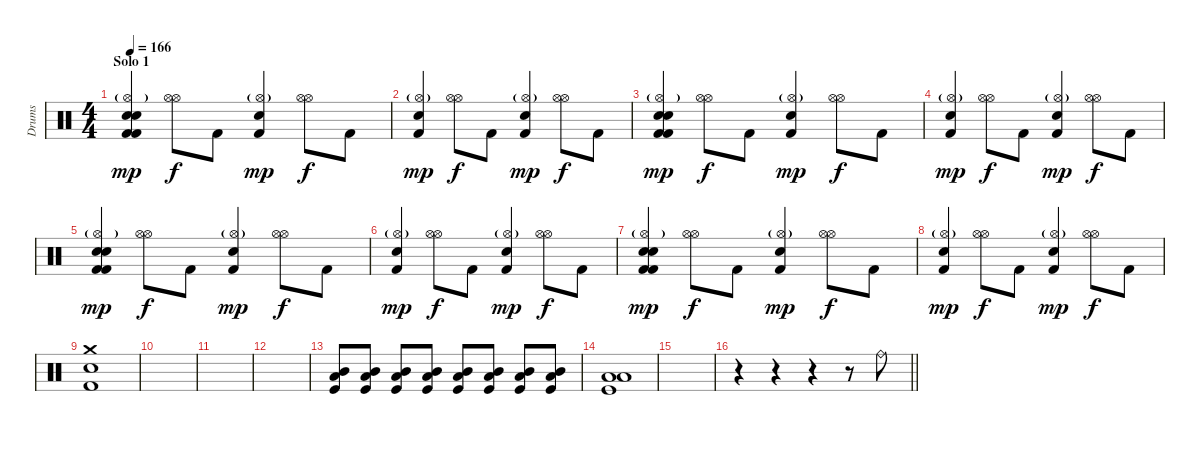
\track ("Drums" "Drums") {instrument percussion}
\staff {score}
\articulation defaults
\ts (4 4)
\section ("" "Solo 1")
\tempo 166
\clef neutral
\ks c
("Kick (hit) 2" "Electric Snare (hit)" "Hi-Hat (open)"{g} "Kick (hit) 2" "Snare (hit) 2").4{dy mp} ("Hi-Hat (open)" "Hi-Hat (open)").8{dy f} "Kick (hit) 2".8 ("Hi-Hat (open)"{g} "Kick (hit) 2" "Snare (hit) 2").4{dy mp} ("Hi-Hat (open)" "Hi-Hat (open)").8{dy f} "Kick (hit) 2".8 |
("Hi-Hat (open)"{g} "Kick (hit) 2" "Snare (hit) 2").4{dy mp} ("Hi-Hat (open)" "Hi-Hat (open)").8{dy f} "Kick (hit) 2".8 ("Hi-Hat (open)"{g} "Kick (hit) 2" "Snare (hit) 2").4{dy mp} ("Hi-Hat (open)" "Hi-Hat (open)").8{dy f} "Kick (hit) 2".8 |
("Kick (hit) 2" "Electric Snare (hit)" "Hi-Hat (open)"{g} "Kick (hit) 2" "Snare (hit) 2").4{dy mp} ("Hi-Hat (open)" "Hi-Hat (open)").8{dy f} "Kick (hit) 2".8 ("Hi-Hat (open)"{g} "Kick (hit) 2" "Snare (hit) 2").4{dy mp} ("Hi-Hat (open)" "Hi-Hat (open)").8{dy f} "Kick (hit) 2".8 |
("Hi-Hat (open)"{g} "Kick (hit) 2" "Snare (hit) 2").4{dy mp} ("Hi-Hat (open)" "Hi-Hat (open)").8{dy f} "Kick (hit) 2".8 ("Hi-Hat (open)"{g} "Kick (hit) 2" "Snare (hit) 2").4{dy mp} ("Hi-Hat (open)" "Hi-Hat (open)").8{dy f} "Kick (hit) 2".8 |
("Kick (hit) 2" "Electric Snare (hit)" "Hi-Hat (open)"{g} "Kick (hit) 2" "Snare (hit) 2").4{dy mp} ("Hi-Hat (open)" "Hi-Hat (open)").8{dy f} "Kick (hit) 2".8 ("Hi-Hat (open)"{g} "Kick (hit) 2" "Snare (hit) 2").4{dy mp} ("Hi-Hat (open)" "Hi-Hat (open)").8{dy f} "Kick (hit) 2".8 |
("Hi-Hat (open)"{g} "Kick (hit) 2" "Snare (hit) 2").4{dy mp} ("Hi-Hat (open)" "Hi-Hat (open)").8{dy f} "Kick (hit) 2".8 ("Hi-Hat (open)"{g} "Kick (hit) 2" "Snare (hit) 2").4{dy mp} ("Hi-Hat (open)" "Hi-Hat (open)").8{dy f} "Kick (hit) 2".8 |
("Kick (hit) 2" "Electric Snare (hit)" "Hi-Hat (open)"{g} "Kick (hit) 2" "Snare (hit) 2").4{dy mp} ("Hi-Hat (open)" "Hi-Hat (open)").8{dy f} "Kick (hit) 2".8 ("Hi-Hat (open)"{g} "Kick (hit) 2" "Snare (hit) 2").4{dy mp} ("Hi-Hat (open)" "Hi-Hat (open)").8{dy f} "Kick (hit) 2".8 |
("Hi-Hat (open)"{g} "Kick (hit) 2" "Snare (hit) 2").4{dy mp} ("Hi-Hat (open)" "Hi-Hat (open)").8{dy f} "Kick (hit) 2".8 ("Hi-Hat (open)"{g} "Kick (hit) 2" "Snare (hit) 2").4{dy mp} ("Hi-Hat (open)" "Hi-Hat (open)").8{dy f} "Kick (hit) 2".8 |
("Kick (hit) 2" "Crash medium (hit)" "Snare (hit) 2").1 |
|
|
|
("Mid Tom (hit)" "Low Floor Tom (hit)" "Kick (hit)").8 ("Mid Tom (hit)" "Low Floor Tom (hit)" "Kick (hit)").8 ("Mid Tom (hit)" "Low Floor Tom (hit)" "Kick (hit)").8 ("Mid Tom (hit)" "Low Floor Tom (hit)" "Kick (hit)").8 ("Mid Tom (hit)" "Low Floor Tom (hit)" "Kick (hit)").8 ("Mid Tom (hit)" "Low Floor Tom (hit)" "Kick (hit)").8 ("Mid Tom (hit)" "Low Floor Tom (hit)" "Kick (hit)").8 ("Mid Tom (hit)" "Low Floor Tom (hit)" "Kick (hit)").8 |
("Low Tom (hit)" "Low Floor Tom (hit)" "Kick (hit)").1 |
|
\barLineRight lightlight
r.4 r.4 r.4 r.8 "Ride (bell)".8
